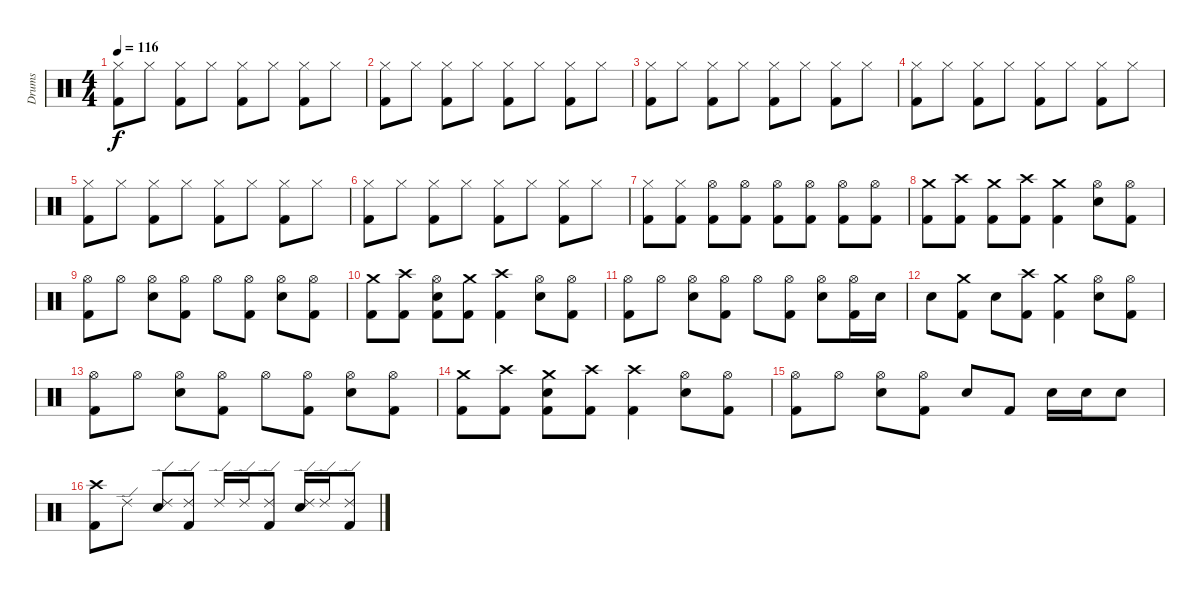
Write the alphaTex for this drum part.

\track ("Drums" "Drums") {instrument percussion}
\staff {score}
\articulation defaults
\ts (4 4)
\tempo 116
\clef neutral
\ks c
("Kick (hit) 2" "Hi-Hat (closed)").8{dy f} "Hi-Hat (closed)".8 ("Kick (hit) 2" "Hi-Hat (closed)").8 "Hi-Hat (closed)".8 ("Kick (hit) 2" "Hi-Hat (closed)").8 "Hi-Hat (closed)".8 ("Kick (hit) 2" "Hi-Hat (closed)").8 "Hi-Hat (closed)".8 |
("Kick (hit) 2" "Hi-Hat (closed)").8 "Hi-Hat (closed)".8 ("Kick (hit) 2" "Hi-Hat (closed)").8 "Hi-Hat (closed)".8 ("Kick (hit) 2" "Hi-Hat (closed)").8 "Hi-Hat (closed)".8 ("Kick (hit) 2" "Hi-Hat (closed)").8 "Hi-Hat (closed)".8 |
("Kick (hit) 2" "Hi-Hat (closed)").8 "Hi-Hat (closed)".8 ("Kick (hit) 2" "Hi-Hat (closed)").8 "Hi-Hat (closed)".8 ("Kick (hit) 2" "Hi-Hat (closed)").8 "Hi-Hat (closed)".8 ("Kick (hit) 2" "Hi-Hat (closed)").8 "Hi-Hat (closed)".8 |
("Kick (hit) 2" "Hi-Hat (closed)").8 "Hi-Hat (closed)".8 ("Kick (hit) 2" "Hi-Hat (closed)").8 "Hi-Hat (closed)".8 ("Kick (hit) 2" "Hi-Hat (closed)").8 "Hi-Hat (closed)".8 ("Kick (hit) 2" "Hi-Hat (closed)").8 "Hi-Hat (closed)".8 |
("Kick (hit) 2" "Hi-Hat (closed)").8 "Hi-Hat (closed)".8 ("Kick (hit) 2" "Hi-Hat (closed)").8 "Hi-Hat (closed)".8 ("Kick (hit) 2" "Hi-Hat (closed)").8 "Hi-Hat (closed)".8 ("Kick (hit) 2" "Hi-Hat (closed)").8 "Hi-Hat (closed)".8 |
("Kick (hit) 2" "Hi-Hat (closed)").8 "Hi-Hat (closed)".8 ("Kick (hit) 2" "Hi-Hat (closed)").8 "Hi-Hat (closed)".8 ("Kick (hit) 2" "Hi-Hat (closed)").8 "Hi-Hat (closed)".8 ("Kick (hit) 2" "Hi-Hat (closed)").8 "Hi-Hat (closed)".8 |
("Kick (hit) 2" "Hi-Hat (closed)").8 ("Kick (hit) 2" "Hi-Hat (closed)").8 ("Kick (hit) 2" "Hi-Hat (open)").8 ("Kick (hit) 2" "Hi-Hat (open)").8 ("Kick (hit) 2" "Hi-Hat (open)").8 ("Kick (hit) 2" "Hi-Hat (open)").8 ("Kick (hit) 2" "Hi-Hat (open)").8 ("Kick (hit) 2" "Hi-Hat (open)").8 |
("Kick (hit) 2" "Crash medium (hit)").8 ("Kick (hit) 2" "Crash high (hit)").8 ("Kick (hit) 2" "Crash medium (hit)").8 ("Kick (hit) 2" "Crash high (hit)").8 ("Kick (hit) 2" "Crash medium (hit)").4 ("Electric Snare (hit)" "Hi-Hat (open)").8 ("Kick (hit) 2" "Hi-Hat (open)").8 |
("Kick (hit) 2" "Hi-Hat (open)").8 "Hi-Hat (open)".8 ("Electric Snare (hit)" "Hi-Hat (open)").8 ("Kick (hit) 2" "Hi-Hat (open)").8 "Hi-Hat (open)".8 ("Kick (hit) 2" "Hi-Hat (open)").8 ("Electric Snare (hit)" "Hi-Hat (open)").8 ("Kick (hit) 2" "Hi-Hat (open)").8 |
("Kick (hit) 2" "Crash medium (hit)").8 ("Kick (hit) 2" "Crash high (hit)").8 ("Kick (hit) 2" "Electric Snare (hit)" "Hi-Hat (open)").8 ("Kick (hit) 2" "Crash medium (hit)").8 ("Kick (hit) 2" "Crash high (hit)").4 ("Electric Snare (hit)" "Hi-Hat (open)").8 ("Kick (hit) 2" "Hi-Hat (open)").8 |
("Kick (hit) 2" "Hi-Hat (open)").8 "Hi-Hat (open)".8 ("Electric Snare (hit)" "Hi-Hat (open)").8 ("Kick (hit) 2" "Hi-Hat (open)").8 "Hi-Hat (open)".8 ("Kick (hit) 2" "Hi-Hat (open)").8 ("Electric Snare (hit)" "Hi-Hat (open)").8 ("Kick (hit) 2" "Hi-Hat (open)").16 "Electric Snare (hit)".16 |
"Electric Snare (hit)".8 ("Kick (hit) 2" "Crash medium (hit)").8 "Electric Snare (hit)".8 ("Kick (hit) 2" "Crash high (hit)").8 ("Kick (hit) 2" "Crash medium (hit)").4 ("Electric Snare (hit)" "Hi-Hat (open)").8 ("Kick (hit) 2" "Hi-Hat (open)").8 |
("Kick (hit) 2" "Hi-Hat (open)").8 "Hi-Hat (open)".8 ("Electric Snare (hit)" "Hi-Hat (open)").8 ("Kick (hit) 2" "Hi-Hat (open)").8 "Hi-Hat (open)".8 ("Kick (hit) 2" "Hi-Hat (open)").8 ("Electric Snare (hit)" "Hi-Hat (open)").8 ("Kick (hit) 2" "Hi-Hat (open)").8 |
("Kick (hit) 2" "Crash medium (hit)").8 ("Kick (hit) 2" "Crash high (hit)").8 ("Kick (hit) 2" "Electric Snare (hit)" "Crash medium (hit)").8 ("Kick (hit) 2" "Crash high (hit)").8 ("Kick (hit) 2" "Crash high (hit)").4 ("Electric Snare (hit)" "Hi-Hat (open)").8 ("Kick (hit) 2" "Hi-Hat (open)").8 |
("Kick (hit) 2" "Hi-Hat (open)").8 "Hi-Hat (open)".8 ("Electric Snare (hit)" "Hi-Hat (open)").8 ("Kick (hit) 2" "Hi-Hat (open)").8 "Electric Snare (hit)".8 "Kick (hit) 2".8 "Electric Snare (hit)".16 "Electric Snare (hit)".16 "Electric Snare (hit)".8 |
("Kick (hit) 2" "Crash high (hit)").8 "Ride (edge) 2".8 ("Electric Snare (hit)" "Ride (edge) 2").8 ("Kick (hit) 2" "Ride (edge) 2").8 "Ride (edge) 2".16 "Ride (edge) 2".16 ("Kick (hit) 2" "Ride (edge) 2").8 ("Electric Snare (hit)" "Ride (edge) 2").16 "Ride (edge) 2".16 ("Kick (hit) 2" "Ride (edge) 2").8
